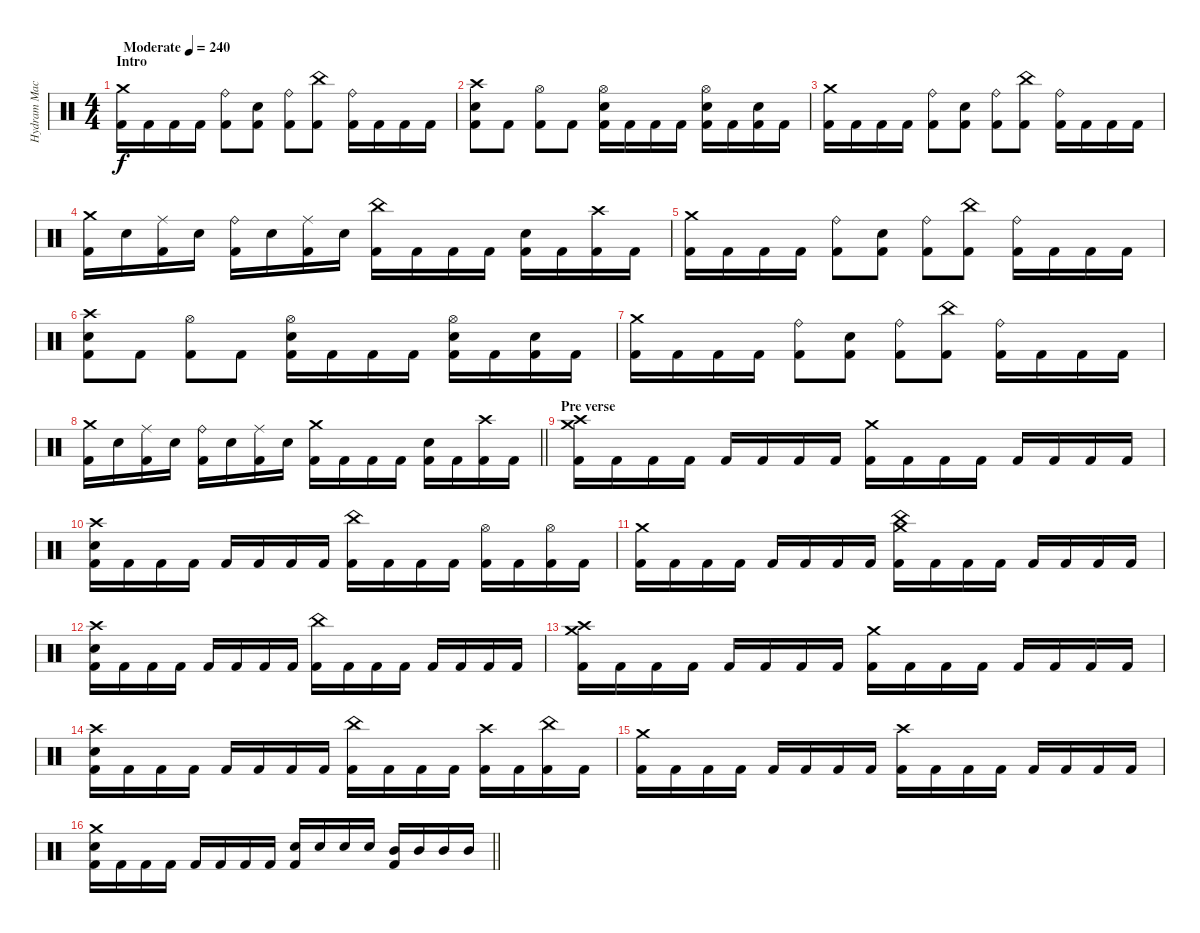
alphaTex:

\track ("Hydram Machine" "Hydram Mac") {instrument percussion}
\staff {score}
\articulation defaults
\ts (4 4)
\section ("" "Intro")
\tempo (240 "Moderate")
\clef neutral
\ks c
("Crash medium (hit)" "Kick (hit) 2").16{dy f} "Kick (hit) 2".16 "Kick (hit) 2".16 "Kick (hit) 2".16 ("Ride (bell)" "Kick (hit) 2").8 ("Electric Snare (hit)" "Kick (hit) 2").8 ("Ride (bell)" "Kick (hit) 2").8 ("China (hit)" "Kick (hit) 2").8 ("Ride (bell)" "Kick (hit) 2").16 "Kick (hit) 2".16 "Kick (hit) 2".16 "Kick (hit) 2".16 |
("Crash high (hit)" "Electric Snare (hit)" "Kick (hit) 2").8 "Kick (hit) 2".8 ("Hi-Hat (open)" "Kick (hit) 2").8 "Kick (hit) 2".8 ("Hi-Hat (open)" "Electric Snare (hit)" "Kick (hit) 2").16 "Kick (hit) 2".16 "Kick (hit) 2".16 "Kick (hit) 2".16 ("Hi-Hat (open)" "Electric Snare (hit)" "Kick (hit) 2").16 "Kick (hit) 2".16 ("Electric Snare (hit)" "Kick (hit) 2").16 "Kick (hit) 2".16 |
("Crash medium (hit)" "Kick (hit) 2").16 "Kick (hit) 2".16 "Kick (hit) 2".16 "Kick (hit) 2".16 ("Ride (bell)" "Kick (hit) 2").8 ("Electric Snare (hit)" "Kick (hit) 2").8 ("Ride (bell)" "Kick (hit) 2").8 ("China (hit)" "Kick (hit) 2").8 ("Ride (bell)" "Kick (hit) 2").16 "Kick (hit) 2".16 "Kick (hit) 2".16 "Kick (hit) 2".16 |
("Crash medium (hit)" "Kick (hit) 2").16 "Electric Snare (hit)".16 ("Ride (middle)" "Kick (hit) 2").16 "Electric Snare (hit)".16 ("Ride (bell)" "Kick (hit) 2").16 "Electric Snare (hit)".16 ("Ride (middle)" "Kick (hit) 2").16 "Electric Snare (hit)".16 ("China (hit)" "Kick (hit) 2").16 "Kick (hit) 2".16 "Kick (hit) 2".16 "Kick (hit) 2".16 ("Electric Snare (hit)" "Kick (hit) 2").16 "Kick (hit) 2".16 ("Crash high (hit)" "Kick (hit) 2").16 "Kick (hit) 2".16 |
("Crash medium (hit)" "Kick (hit) 2").16 "Kick (hit) 2".16 "Kick (hit) 2".16 "Kick (hit) 2".16 ("Ride (bell)" "Kick (hit) 2").8 ("Electric Snare (hit)" "Kick (hit) 2").8 ("Ride (bell)" "Kick (hit) 2").8 ("China (hit)" "Kick (hit) 2").8 ("Ride (bell)" "Kick (hit) 2").16 "Kick (hit) 2".16 "Kick (hit) 2".16 "Kick (hit) 2".16 |
("Crash high (hit)" "Electric Snare (hit)" "Kick (hit) 2").8 "Kick (hit) 2".8 ("Hi-Hat (open)" "Kick (hit) 2").8 "Kick (hit) 2".8 ("Hi-Hat (open)" "Electric Snare (hit)" "Kick (hit) 2").16 "Kick (hit) 2".16 "Kick (hit) 2".16 "Kick (hit) 2".16 ("Hi-Hat (open)" "Electric Snare (hit)" "Kick (hit) 2").16 "Kick (hit) 2".16 ("Electric Snare (hit)" "Kick (hit) 2").16 "Kick (hit) 2".16 |
("Crash medium (hit)" "Kick (hit) 2").16 "Kick (hit) 2".16 "Kick (hit) 2".16 "Kick (hit) 2".16 ("Ride (bell)" "Kick (hit) 2").8 ("Electric Snare (hit)" "Kick (hit) 2").8 ("Ride (bell)" "Kick (hit) 2").8 ("China (hit)" "Kick (hit) 2").8 ("Ride (bell)" "Kick (hit) 2").16 "Kick (hit) 2".16 "Kick (hit) 2".16 "Kick (hit) 2".16 |
\barLineRight lightlight
("Crash medium (hit)" "Kick (hit) 2").16 "Electric Snare (hit)".16 ("Ride (middle)" "Kick (hit) 2").16 "Electric Snare (hit)".16 ("Ride (bell)" "Kick (hit) 2").16 "Electric Snare (hit)".16 ("Ride (middle)" "Kick (hit) 2").16 "Electric Snare (hit)".16 ("Crash medium (hit)" "Kick (hit) 2").16 "Kick (hit) 2".16 "Kick (hit) 2".16 "Kick (hit) 2".16 ("Electric Snare (hit)" "Kick (hit) 2").16 "Kick (hit) 2".16 ("Crash high (hit)" "Kick (hit) 2").16 "Kick (hit) 2".16 |
\section ("" "Pre verse")
("Crash medium (hit)" "Crash high (hit)" "Kick (hit) 2").16 "Kick (hit) 2".16 "Kick (hit) 2".16 "Kick (hit) 2".16 "Kick (hit) 2".16 "Kick (hit) 2".16 "Kick (hit) 2".16 "Kick (hit) 2".16 ("Crash medium (hit)" "Kick (hit) 2").16 "Kick (hit) 2".16 "Kick (hit) 2".16 "Kick (hit) 2".16 "Kick (hit) 2".16 "Kick (hit) 2".16 "Kick (hit) 2".16 "Kick (hit) 2".16 |
("Crash high (hit)" "Electric Snare (hit)" "Kick (hit) 2").16 "Kick (hit) 2".16 "Kick (hit) 2".16 "Kick (hit) 2".16 "Kick (hit) 2".16 "Kick (hit) 2".16 "Kick (hit) 2".16 "Kick (hit) 2".16 ("China (hit)" "Kick (hit) 2").16 "Kick (hit) 2".16 "Kick (hit) 2".16 "Kick (hit) 2".16 ("Hi-Hat (open)" "Kick (hit) 2").16 "Kick (hit) 2".16 ("Hi-Hat (open)" "Kick (hit) 2").16 "Kick (hit) 2".16 |
("Crash medium (hit)" "Kick (hit) 2").16 "Kick (hit) 2".16 "Kick (hit) 2".16 "Kick (hit) 2".16 "Kick (hit) 2".16 "Kick (hit) 2".16 "Kick (hit) 2".16 "Kick (hit) 2".16 ("Crash medium (hit)" "China (hit)" "Kick (hit) 2").16 "Kick (hit) 2".16 "Kick (hit) 2".16 "Kick (hit) 2".16 "Kick (hit) 2".16 "Kick (hit) 2".16 "Kick (hit) 2".16 "Kick (hit) 2".16 |
("Crash high (hit)" "Electric Snare (hit)" "Kick (hit) 2").16 "Kick (hit) 2".16 "Kick (hit) 2".16 "Kick (hit) 2".16 "Kick (hit) 2".16 "Kick (hit) 2".16 "Kick (hit) 2".16 "Kick (hit) 2".16 ("China (hit)" "Kick (hit) 2").16 "Kick (hit) 2".16 "Kick (hit) 2".16 "Kick (hit) 2".16 "Kick (hit) 2".16 "Kick (hit) 2".16 "Kick (hit) 2".16 "Kick (hit) 2".16 |
("Crash medium (hit)" "Crash high (hit)" "Kick (hit) 2").16 "Kick (hit) 2".16 "Kick (hit) 2".16 "Kick (hit) 2".16 "Kick (hit) 2".16 "Kick (hit) 2".16 "Kick (hit) 2".16 "Kick (hit) 2".16 ("Crash medium (hit)" "Kick (hit) 2").16 "Kick (hit) 2".16 "Kick (hit) 2".16 "Kick (hit) 2".16 "Kick (hit) 2".16 "Kick (hit) 2".16 "Kick (hit) 2".16 "Kick (hit) 2".16 |
("Crash high (hit)" "Electric Snare (hit)" "Kick (hit) 2").16 "Kick (hit) 2".16 "Kick (hit) 2".16 "Kick (hit) 2".16 "Kick (hit) 2".16 "Kick (hit) 2".16 "Kick (hit) 2".16 "Kick (hit) 2".16 ("China (hit)" "Kick (hit) 2").16 "Kick (hit) 2".16 "Kick (hit) 2".16 "Kick (hit) 2".16 ("Crash high (hit)" "Kick (hit) 2").16 "Kick (hit) 2".16 ("China (hit)" "Kick (hit) 2").16 "Kick (hit) 2".16 |
("Crash medium (hit)" "Kick (hit) 2").16 "Kick (hit) 2".16 "Kick (hit) 2".16 "Kick (hit) 2".16 "Kick (hit) 2".16 "Kick (hit) 2".16 "Kick (hit) 2".16 "Kick (hit) 2".16 ("Crash high (hit)" "Kick (hit) 2").16 "Kick (hit) 2".16 "Kick (hit) 2".16 "Kick (hit) 2".16 "Kick (hit) 2".16 "Kick (hit) 2".16 "Kick (hit) 2".16 "Kick (hit) 2".16 |
\barLineRight lightlight
("Crash medium (hit)" "Electric Snare (hit)" "Kick (hit) 2").16 "Kick (hit) 2".16 "Kick (hit) 2".16 "Kick (hit) 2".16 "Kick (hit) 2".16 "Kick (hit) 2".16 "Kick (hit) 2".16 "Kick (hit) 2".16 ("Electric Snare (hit)" "Kick (hit) 2").16 "Electric Snare (hit)".16 "Electric Snare (hit)".16 "Electric Snare (hit)".16 ("Mid Tom (hit)" "Kick (hit) 2").16 "Mid Tom (hit)".16 "Mid Tom (hit)".16 "Mid Tom (hit)".16
